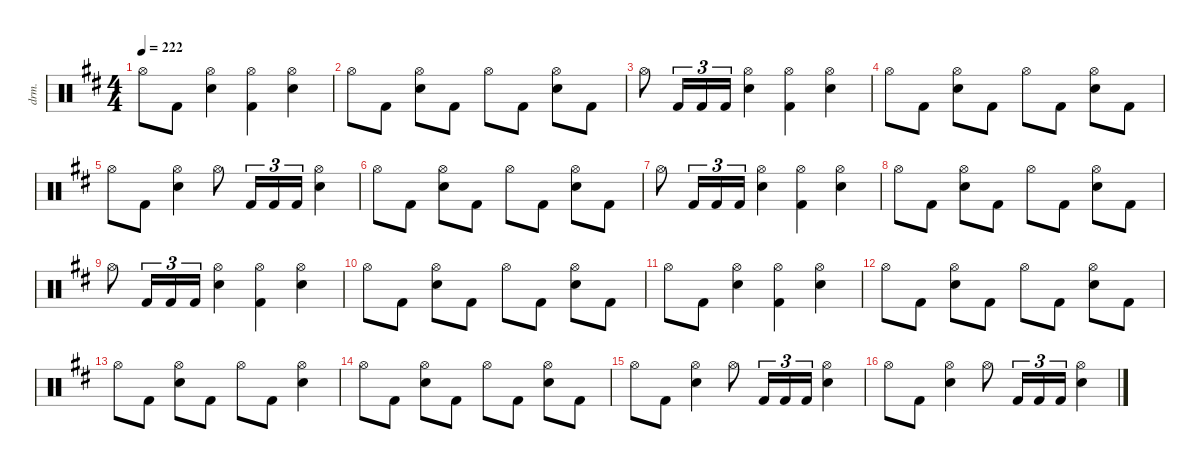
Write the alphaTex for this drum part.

\defaultSystemsLayout 4
\hideDynamics
\bracketExtendMode nobrackets
\otherSystemsTrackNameOrientation horizontal
\track ("Lars Ulrich" "drm.") {defaultSystemsLayout 4 instrument percussion}
\staff {score}
\articulation defaults
\ts (4 4)
\tempo 222
\clef neutral
\ks bminor "Hi-Hat (open)"{acc forcenatural}.8{dy f beam Down} "Kick (hit) 2"{acc forcenatural}.8{beam Down}
("Hi-Hat (open)"{acc forcenatural} "Snare (hit) 2"{acc forcenatural}).4{beam Down} ("Hi-Hat (open)"{acc forcenatural} "Kick (hit) 2"{acc forcenatural}).4{beam Down} ("Hi-Hat (open)"{acc forcenatural} "Snare (hit) 2"{acc forcenatural}).4{beam Down} |
"Hi-Hat (open)"{acc forcenatural}.8{beam Down} "Kick (hit) 2"{acc forcenatural}.8{beam Down} ("Hi-Hat (open)"{acc forcenatural} "Snare (hit) 2"{acc forcenatural}).8{beam Down} "Kick (hit) 2"{acc forcenatural}.8{beam Down} "Hi-Hat (open)"{acc forcenatural}.8{beam Down} "Kick (hit) 2"{acc forcenatural}.8{beam Down} ("Hi-Hat (open)"{acc forcenatural} "Snare (hit) 2"{acc forcenatural}).8{beam Down} "Kick (hit) 2"{acc forcenatural}.8{beam Down} |
"Hi-Hat (open)"{acc forcenatural}.8{beam Down} "Kick (hit) 2"{acc forcenatural}.16{tu (3 2) beam Up} "Kick (hit) 2"{acc forcenatural}.16{tu (3 2) beam Up} "Kick (hit) 2"{acc forcenatural}.16{tu (3 2) beam Up} ("Hi-Hat (open)"{acc forcenatural} "Snare (hit) 2"{acc forcenatural}).4{beam Down} ("Hi-Hat (open)"{acc forcenatural} "Kick (hit) 2"{acc forcenatural}).4{beam Down} ("Hi-Hat (open)"{acc forcenatural} "Snare (hit) 2"{acc forcenatural}).4{beam Down} |
"Hi-Hat (open)"{acc forcenatural}.8{beam Down} "Kick (hit) 2"{acc forcenatural}.8{beam Down} ("Hi-Hat (open)"{acc forcenatural} "Snare (hit) 2"{acc forcenatural}).8{beam Down} "Kick (hit) 2"{acc forcenatural}.8{beam Down} "Hi-Hat (open)"{acc forcenatural}.8{beam Down} "Kick (hit) 2"{acc forcenatural}.8{beam Down} ("Hi-Hat (open)"{acc forcenatural} "Snare (hit) 2"{acc forcenatural}).8{beam Down} "Kick (hit) 2"{acc forcenatural}.8{beam Down} |
"Hi-Hat (open)"{acc forcenatural}.8{beam Down} "Kick (hit) 2"{acc forcenatural}.8{beam Down} ("Hi-Hat (open)"{acc forcenatural} "Snare (hit) 2"{acc forcenatural}).4{beam Down} "Hi-Hat (open)"{acc forcenatural}.8{beam Down} "Kick (hit) 2"{acc forcenatural}.16{tu (3 2) beam Up} "Kick (hit) 2"{acc forcenatural}.16{tu (3 2) beam Up} "Kick (hit) 2"{acc forcenatural}.16{tu (3 2) beam Up} ("Hi-Hat (open)"{acc forcenatural} "Snare (hit) 2"{acc forcenatural}).4{beam Down} |
"Hi-Hat (open)"{acc forcenatural}.8{beam Down} "Kick (hit) 2"{acc forcenatural}.8{beam Down} ("Hi-Hat (open)"{acc forcenatural} "Snare (hit) 2"{acc forcenatural}).8{beam Down} "Kick (hit) 2"{acc forcenatural}.8{beam Down} "Hi-Hat (open)"{acc forcenatural}.8{beam Down} "Kick (hit) 2"{acc forcenatural}.8{beam Down} ("Hi-Hat (open)"{acc forcenatural} "Snare (hit) 2"{acc forcenatural}).8{beam Down} "Kick (hit) 2"{acc forcenatural}.8{beam Down} |
"Hi-Hat (open)"{acc forcenatural}.8{beam Down} "Kick (hit) 2"{acc forcenatural}.16{tu (3 2) beam Up} "Kick (hit) 2"{acc forcenatural}.16{tu (3 2) beam Up} "Kick (hit) 2"{acc forcenatural}.16{tu (3 2) beam Up} ("Hi-Hat (open)"{acc forcenatural} "Snare (hit) 2"{acc forcenatural}).4{beam Down} ("Hi-Hat (open)"{acc forcenatural} "Kick (hit) 2"{acc forcenatural}).4{beam Down} ("Hi-Hat (open)"{acc forcenatural} "Snare (hit) 2"{acc forcenatural}).4{beam Down} |
"Hi-Hat (open)"{acc forcenatural}.8{beam Down} "Kick (hit) 2"{acc forcenatural}.8{beam Down} ("Hi-Hat (open)"{acc forcenatural} "Snare (hit) 2"{acc forcenatural}).8{beam Down} "Kick (hit) 2"{acc forcenatural}.8{beam Down} "Hi-Hat (open)"{acc forcenatural}.8{beam Down} "Kick (hit) 2"{acc forcenatural}.8{beam Down} ("Hi-Hat (open)"{acc forcenatural} "Snare (hit) 2"{acc forcenatural}).8{beam Down} "Kick (hit) 2"{acc forcenatural}.8{beam Down} |
"Hi-Hat (open)"{acc forcenatural}.8{beam Down} "Kick (hit) 2"{acc forcenatural}.16{tu (3 2) beam Up} "Kick (hit) 2"{acc forcenatural}.16{tu (3 2) beam Up} "Kick (hit) 2"{acc forcenatural}.16{tu (3 2) beam Up} ("Hi-Hat (open)"{acc forcenatural} "Snare (hit) 2"{acc forcenatural}).4{beam Down} ("Hi-Hat (open)"{acc forcenatural} "Kick (hit) 2"{acc forcenatural}).4{beam Down} ("Hi-Hat (open)"{acc forcenatural} "Snare (hit) 2"{acc forcenatural}).4{beam Down} |
"Hi-Hat (open)"{acc forcenatural}.8{beam Down} "Kick (hit) 2"{acc forcenatural}.8{beam Down} ("Hi-Hat (open)"{acc forcenatural} "Snare (hit) 2"{acc forcenatural}).8{beam Down} "Kick (hit) 2"{acc forcenatural}.8{beam Down} "Hi-Hat (open)"{acc forcenatural}.8{beam Down} "Kick (hit) 2"{acc forcenatural}.8{beam Down} ("Hi-Hat (open)"{acc forcenatural} "Snare (hit) 2"{acc forcenatural}).8{beam Down} "Kick (hit) 2"{acc forcenatural}.8{beam Down} |
"Hi-Hat (open)"{acc forcenatural}.8{beam Down} "Kick (hit) 2"{acc forcenatural}.8{beam Down} ("Hi-Hat (open)"{acc forcenatural} "Snare (hit) 2"{acc forcenatural}).4{beam Down} ("Hi-Hat (open)"{acc forcenatural} "Kick (hit) 2"{acc forcenatural}).4{beam Down} ("Hi-Hat (open)"{acc forcenatural} "Snare (hit) 2"{acc forcenatural}).4{beam Down} |
"Hi-Hat (open)"{acc forcenatural}.8{beam Down} "Kick (hit) 2"{acc forcenatural}.8{beam Down} ("Hi-Hat (open)"{acc forcenatural} "Snare (hit) 2"{acc forcenatural}).8{beam Down} "Kick (hit) 2"{acc forcenatural}.8{beam Down} "Hi-Hat (open)"{acc forcenatural}.8{beam Down} "Kick (hit) 2"{acc forcenatural}.8{beam Down} ("Hi-Hat (open)"{acc forcenatural} "Snare (hit) 2"{acc forcenatural}).8{beam Down} "Kick (hit) 2"{acc forcenatural}.8{beam Down} |
"Hi-Hat (open)"{acc forcenatural}.8{beam Down} "Kick (hit) 2"{acc forcenatural}.8{beam Down} ("Hi-Hat (open)"{acc forcenatural} "Snare (hit) 2"{acc forcenatural}).8{beam Down} "Kick (hit) 2"{acc forcenatural}.8{beam Down} "Hi-Hat (open)"{acc forcenatural}.8{beam Down} "Kick (hit) 2"{acc forcenatural}.8{beam Down} ("Hi-Hat (open)"{acc forcenatural} "Snare (hit) 2"{acc forcenatural}).4{beam Down} |
"Hi-Hat (open)"{acc forcenatural}.8{beam Down} "Kick (hit) 2"{acc forcenatural}.8{beam Down} ("Hi-Hat (open)"{acc forcenatural} "Snare (hit) 2"{acc forcenatural}).8{beam Down} "Kick (hit) 2"{acc forcenatural}.8{beam Down} "Hi-Hat (open)"{acc forcenatural}.8{beam Down} "Kick (hit) 2"{acc forcenatural}.8{beam Down} ("Hi-Hat (open)"{acc forcenatural} "Snare (hit) 2"{acc forcenatural}).8{beam Down} "Kick (hit) 2"{acc forcenatural}.8{beam Down} |
"Hi-Hat (open)"{acc forcenatural}.8{beam Down} "Kick (hit) 2"{acc forcenatural}.8{beam Down} ("Hi-Hat (open)"{acc forcenatural} "Snare (hit) 2"{acc forcenatural}).4{beam Down} "Hi-Hat (open)"{acc forcenatural}.8{beam Down} "Kick (hit) 2"{acc forcenatural}.16{tu (3 2) beam Up} "Kick (hit) 2"{acc forcenatural}.16{tu (3 2) beam Up} "Kick (hit) 2"{acc forcenatural}.16{tu (3 2) beam Up} ("Hi-Hat (open)"{acc forcenatural} "Snare (hit) 2"{acc forcenatural}).4{beam Down} |
"Hi-Hat (open)"{acc forcenatural}.8{beam Down} "Kick (hit) 2"{acc forcenatural}.8{beam Down} ("Hi-Hat (open)"{acc forcenatural} "Snare (hit) 2"{acc forcenatural}).4{beam Down} "Hi-Hat (open)"{acc forcenatural}.8{beam Down} "Kick (hit) 2"{acc forcenatural}.16{tu (3 2) beam Up} "Kick (hit) 2"{acc forcenatural}.16{tu (3 2) beam Up} "Kick (hit) 2"{acc forcenatural}.16{tu (3 2) beam Up} ("Hi-Hat (open)"{acc forcenatural} "Snare (hit) 2"{acc forcenatural}).4{beam Down}
